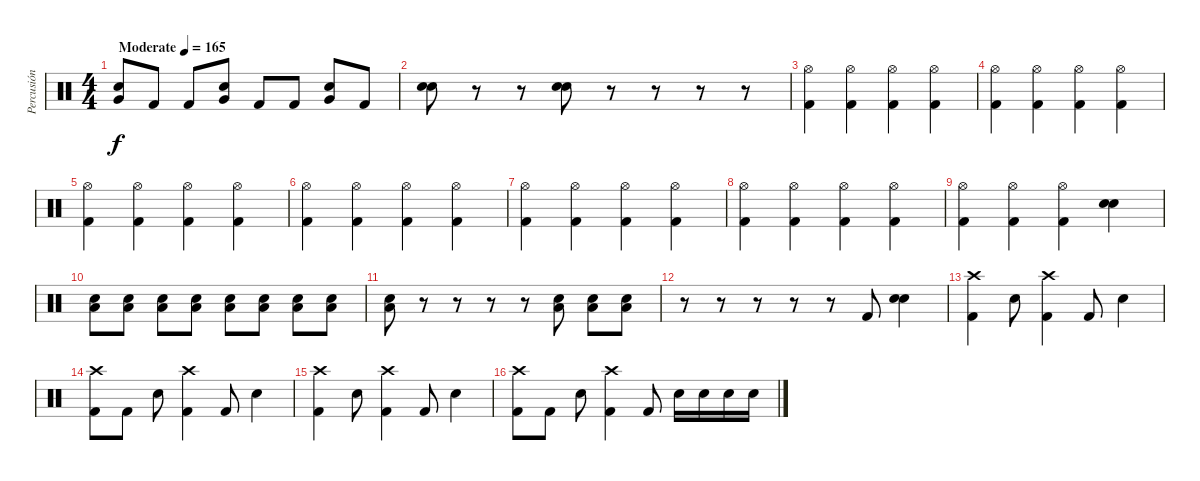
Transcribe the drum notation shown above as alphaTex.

\track ("Percusión" "Percusión") {instrument percussion}
\staff {score}
\articulation defaults
\ts (4 4)
\tempo (165 "Moderate")
\clef neutral
\ks c
("Very Low Tom (hit)" "Electric Snare (hit)").8{dy f} "Kick (hit) 2".8 "Kick (hit) 2".8 ("Very Low Tom (hit)" "Electric Snare (hit)").8 "Kick (hit) 2".8 "Kick (hit) 2".8 ("Very Low Tom (hit)" "Electric Snare (hit)").8 "Kick (hit) 2".8 |
("Electric Snare (hit)" "Electric Snare (hit)").8{bd 240} r.8 r.8 ("Electric Snare (hit)" "Electric Snare (hit)").8{bd 240} r.8 r.8 r.8 r.8 |
("Hi-Hat (open)" "Kick (hit) 2").4 ("Hi-Hat (open)" "Kick (hit) 2").4 ("Hi-Hat (open)" "Kick (hit) 2").4 ("Hi-Hat (open)" "Kick (hit) 2").4 |
("Hi-Hat (open)" "Kick (hit) 2").4 ("Hi-Hat (open)" "Kick (hit) 2").4 ("Hi-Hat (open)" "Kick (hit) 2").4 ("Hi-Hat (open)" "Kick (hit) 2").4 |
("Hi-Hat (open)" "Kick (hit) 2").4 ("Hi-Hat (open)" "Kick (hit) 2").4 ("Hi-Hat (open)" "Kick (hit) 2").4 ("Hi-Hat (open)" "Kick (hit) 2").4 |
("Hi-Hat (open)" "Kick (hit) 2").4 ("Hi-Hat (open)" "Kick (hit) 2").4 ("Hi-Hat (open)" "Kick (hit) 2").4 ("Hi-Hat (open)" "Kick (hit) 2").4 |
("Hi-Hat (open)" "Kick (hit) 2").4 ("Hi-Hat (open)" "Kick (hit) 2").4 ("Hi-Hat (open)" "Kick (hit) 2").4 ("Hi-Hat (open)" "Kick (hit) 2").4 |
("Hi-Hat (open)" "Kick (hit) 2").4 ("Hi-Hat (open)" "Kick (hit) 2").4 ("Hi-Hat (open)" "Kick (hit) 2").4 ("Hi-Hat (open)" "Kick (hit) 2").4 |
("Hi-Hat (open)" "Kick (hit) 2").4 ("Hi-Hat (open)" "Kick (hit) 2").4 ("Hi-Hat (open)" "Kick (hit) 2").4 ("Electric Snare (hit)" "Electric Snare (hit)").4{bd 240} |
("Low Tom (hit)" "Electric Snare (hit)").8{volume 11} ("Low Tom (hit)" "Electric Snare (hit)").8 ("Low Tom (hit)" "Electric Snare (hit)").8{volume 13} ("Low Tom (hit)" "Electric Snare (hit)").8 ("Low Tom (hit)" "Electric Snare (hit)").8{volume 14} ("Low Tom (hit)" "Electric Snare (hit)").8 ("Low Tom (hit)" "Electric Snare (hit)").8{volume 16} ("Low Tom (hit)" "Electric Snare (hit)").8 |
("Low Tom (hit)" "Electric Snare (hit)").8 r.8 r.8 r.8 r.8 ("Low Tom (hit)" "Electric Snare (hit)").8 ("Low Tom (hit)" "Electric Snare (hit)").8 ("Low Tom (hit)" "Electric Snare (hit)").8 |
r.8 r.8 r.8 r.8 r.8 "Kick (hit) 2".8 ("Electric Snare (hit)" "Electric Snare (hit)").4{bd 120} |
("Crash high (hit)" "Kick (hit) 2").4 "Electric Snare (hit)".8 ("Crash high (hit)" "Kick (hit) 2").4 "Kick (hit) 2".8 "Electric Snare (hit)".4 |
("Crash high (hit)" "Kick (hit) 2").8 "Kick (hit) 2".8 "Electric Snare (hit)".8 ("Crash high (hit)" "Kick (hit) 2").4 "Kick (hit) 2".8 "Electric Snare (hit)".4 |
("Crash high (hit)" "Kick (hit) 2").4 "Electric Snare (hit)".8 ("Crash high (hit)" "Kick (hit) 2").4 "Kick (hit) 2".8 "Electric Snare (hit)".4 |
("Crash high (hit)" "Kick (hit) 2").8 "Kick (hit) 2".8 "Electric Snare (hit)".8 ("Crash high (hit)" "Kick (hit) 2").4 "Kick (hit) 2".8 "Electric Snare (hit)".16 "Electric Snare (hit)".16 "Electric Snare (hit)".16 "Electric Snare (hit)".16
